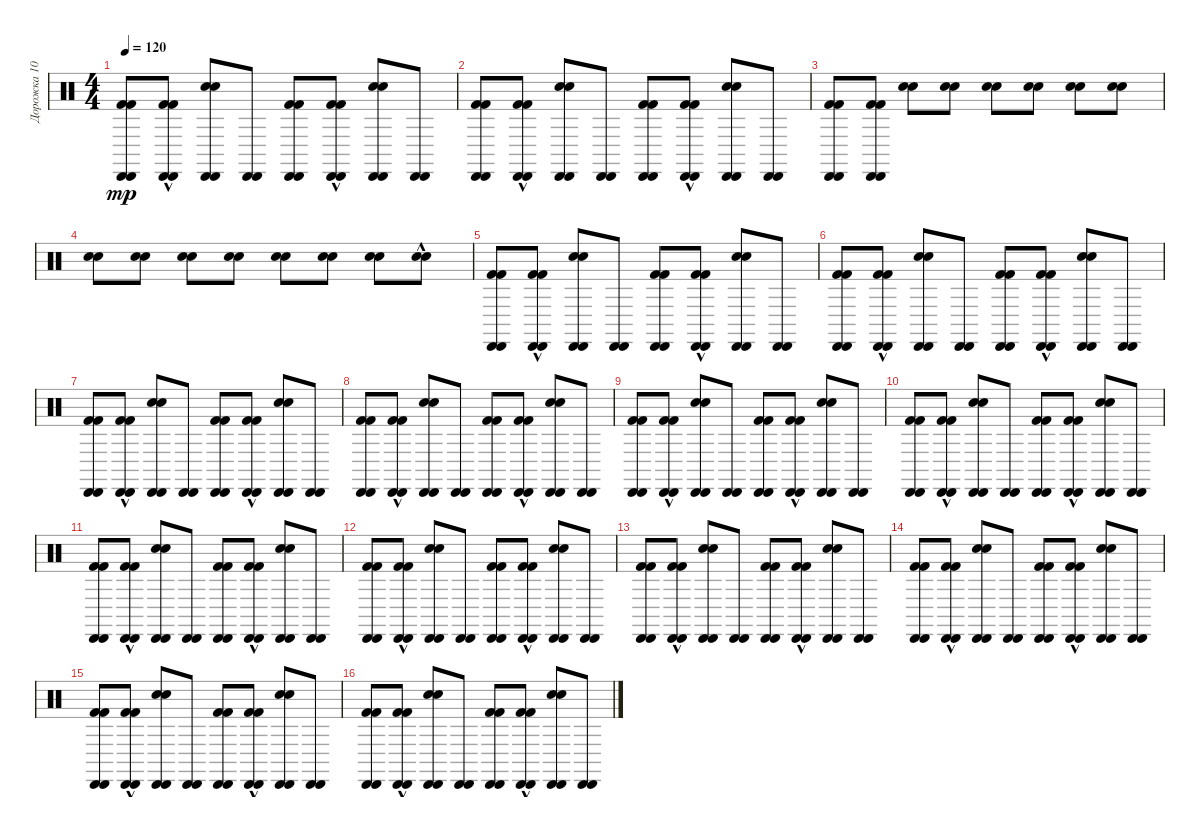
\track ("Дорожка 10" "Дорожка 10") {instrument percussion}
\staff {score}
\articulation defaults
\ts (4 4)
\tempo 120
\clef neutral
\ks c
("Kick (hit) 2" "Cabasa (hit)" "Kick (hit) 2" "Cabasa (hit)").8{dy mp} ("Kick (hit) 2"{hac} "Cabasa (hit)" "Kick (hit) 2"{hac} "Cabasa (hit)").8 ("Snare (hit) 2" "Cabasa (hit)" "Snare (hit) 2" "Cabasa (hit)").8 ("Cabasa (hit)" "Cabasa (hit)").8 ("Kick (hit) 2" "Cabasa (hit)" "Kick (hit) 2" "Cabasa (hit)").8 ("Kick (hit) 2"{hac} "Cabasa (hit)" "Kick (hit) 2"{hac} "Cabasa (hit)").8 ("Snare (hit) 2" "Cabasa (hit)" "Snare (hit) 2" "Cabasa (hit)").8 ("Cabasa (hit)" "Cabasa (hit)").8 |
("Kick (hit) 2" "Cabasa (hit)" "Kick (hit) 2" "Cabasa (hit)").8 ("Kick (hit) 2"{hac} "Cabasa (hit)" "Kick (hit) 2"{hac} "Cabasa (hit)").8 ("Snare (hit) 2" "Cabasa (hit)" "Snare (hit) 2" "Cabasa (hit)").8 ("Cabasa (hit)" "Cabasa (hit)").8 ("Kick (hit) 2" "Cabasa (hit)" "Kick (hit) 2" "Cabasa (hit)").8 ("Kick (hit) 2"{hac} "Cabasa (hit)" "Kick (hit) 2"{hac} "Cabasa (hit)").8 ("Snare (hit) 2" "Cabasa (hit)" "Snare (hit) 2" "Cabasa (hit)").8 ("Cabasa (hit)" "Cabasa (hit)").8 |
("Kick (hit) 2" "Cabasa (hit)" "Kick (hit) 2" "Cabasa (hit)").8 ("Kick (hit) 2" "Cabasa (hit)" "Kick (hit) 2" "Cabasa (hit)").8 ("Snare (hit) 2" "Snare (hit) 2").8 ("Snare (hit) 2" "Snare (hit) 2").8 ("Snare (hit) 2" "Snare (hit) 2").8 ("Snare (hit) 2" "Snare (hit) 2").8 ("Snare (hit) 2" "Snare (hit) 2").8 ("Snare (hit) 2" "Snare (hit) 2").8 |
("Snare (hit) 2" "Snare (hit) 2").8 ("Snare (hit) 2" "Snare (hit) 2").8 ("Snare (hit) 2" "Snare (hit) 2").8 ("Snare (hit) 2" "Snare (hit) 2").8 ("Snare (hit) 2" "Snare (hit) 2").8 ("Snare (hit) 2" "Snare (hit) 2").8 ("Snare (hit) 2" "Snare (hit) 2").8 ("Snare (hit) 2"{hac} "Snare (hit) 2"{hac}).8 |
("Kick (hit) 2" "Cabasa (hit)" "Kick (hit) 2" "Cabasa (hit)").8 ("Kick (hit) 2"{hac} "Cabasa (hit)" "Kick (hit) 2"{hac} "Cabasa (hit)").8 ("Snare (hit) 2" "Cabasa (hit)" "Snare (hit) 2" "Cabasa (hit)").8 ("Cabasa (hit)" "Cabasa (hit)").8 ("Kick (hit) 2" "Cabasa (hit)" "Kick (hit) 2" "Cabasa (hit)").8 ("Kick (hit) 2"{hac} "Cabasa (hit)" "Kick (hit) 2"{hac} "Cabasa (hit)").8 ("Snare (hit) 2" "Cabasa (hit)" "Snare (hit) 2" "Cabasa (hit)").8 ("Cabasa (hit)" "Cabasa (hit)").8 |
("Kick (hit) 2" "Cabasa (hit)" "Kick (hit) 2" "Cabasa (hit)").8 ("Kick (hit) 2"{hac} "Cabasa (hit)" "Kick (hit) 2"{hac} "Cabasa (hit)").8 ("Snare (hit) 2" "Cabasa (hit)" "Snare (hit) 2" "Cabasa (hit)").8 ("Cabasa (hit)" "Cabasa (hit)").8 ("Kick (hit) 2" "Cabasa (hit)" "Kick (hit) 2" "Cabasa (hit)").8 ("Kick (hit) 2"{hac} "Cabasa (hit)" "Kick (hit) 2"{hac} "Cabasa (hit)").8 ("Snare (hit) 2" "Cabasa (hit)" "Snare (hit) 2" "Cabasa (hit)").8 ("Cabasa (hit)" "Cabasa (hit)").8 |
("Kick (hit) 2" "Cabasa (hit)" "Kick (hit) 2" "Cabasa (hit)").8 ("Kick (hit) 2"{hac} "Cabasa (hit)" "Kick (hit) 2"{hac} "Cabasa (hit)").8 ("Snare (hit) 2" "Cabasa (hit)" "Snare (hit) 2" "Cabasa (hit)").8 ("Cabasa (hit)" "Cabasa (hit)").8 ("Kick (hit) 2" "Cabasa (hit)" "Kick (hit) 2" "Cabasa (hit)").8 ("Kick (hit) 2"{hac} "Cabasa (hit)" "Kick (hit) 2"{hac} "Cabasa (hit)").8 ("Snare (hit) 2" "Cabasa (hit)" "Snare (hit) 2" "Cabasa (hit)").8 ("Cabasa (hit)" "Cabasa (hit)").8 |
("Kick (hit) 2" "Cabasa (hit)" "Kick (hit) 2" "Cabasa (hit)").8 ("Kick (hit) 2"{hac} "Cabasa (hit)" "Kick (hit) 2"{hac} "Cabasa (hit)").8 ("Snare (hit) 2" "Cabasa (hit)" "Snare (hit) 2" "Cabasa (hit)").8 ("Cabasa (hit)" "Cabasa (hit)").8 ("Kick (hit) 2" "Cabasa (hit)" "Kick (hit) 2" "Cabasa (hit)").8 ("Kick (hit) 2"{hac} "Cabasa (hit)" "Kick (hit) 2"{hac} "Cabasa (hit)").8 ("Snare (hit) 2" "Cabasa (hit)" "Snare (hit) 2" "Cabasa (hit)").8 ("Cabasa (hit)" "Cabasa (hit)").8 |
("Kick (hit) 2" "Cabasa (hit)" "Kick (hit) 2" "Cabasa (hit)").8 ("Kick (hit) 2"{hac} "Cabasa (hit)" "Kick (hit) 2"{hac} "Cabasa (hit)").8 ("Snare (hit) 2" "Cabasa (hit)" "Snare (hit) 2" "Cabasa (hit)").8 ("Cabasa (hit)" "Cabasa (hit)").8 ("Kick (hit) 2" "Cabasa (hit)" "Kick (hit) 2" "Cabasa (hit)").8 ("Kick (hit) 2"{hac} "Cabasa (hit)" "Kick (hit) 2"{hac} "Cabasa (hit)").8 ("Snare (hit) 2" "Cabasa (hit)" "Snare (hit) 2" "Cabasa (hit)").8 ("Cabasa (hit)" "Cabasa (hit)").8 |
("Kick (hit) 2" "Cabasa (hit)" "Kick (hit) 2" "Cabasa (hit)").8 ("Kick (hit) 2"{hac} "Cabasa (hit)" "Kick (hit) 2"{hac} "Cabasa (hit)").8 ("Snare (hit) 2" "Cabasa (hit)" "Snare (hit) 2" "Cabasa (hit)").8 ("Cabasa (hit)" "Cabasa (hit)").8 ("Kick (hit) 2" "Cabasa (hit)" "Kick (hit) 2" "Cabasa (hit)").8 ("Kick (hit) 2"{hac} "Cabasa (hit)" "Kick (hit) 2"{hac} "Cabasa (hit)").8 ("Snare (hit) 2" "Cabasa (hit)" "Snare (hit) 2" "Cabasa (hit)").8 ("Cabasa (hit)" "Cabasa (hit)").8 |
("Kick (hit) 2" "Cabasa (hit)" "Kick (hit) 2" "Cabasa (hit)").8 ("Kick (hit) 2"{hac} "Cabasa (hit)" "Kick (hit) 2"{hac} "Cabasa (hit)").8 ("Snare (hit) 2" "Cabasa (hit)" "Snare (hit) 2" "Cabasa (hit)").8 ("Cabasa (hit)" "Cabasa (hit)").8 ("Kick (hit) 2" "Cabasa (hit)" "Kick (hit) 2" "Cabasa (hit)").8 ("Kick (hit) 2"{hac} "Cabasa (hit)" "Kick (hit) 2"{hac} "Cabasa (hit)").8 ("Snare (hit) 2" "Cabasa (hit)" "Snare (hit) 2" "Cabasa (hit)").8 ("Cabasa (hit)" "Cabasa (hit)").8 |
("Kick (hit) 2" "Cabasa (hit)" "Kick (hit) 2" "Cabasa (hit)").8 ("Kick (hit) 2"{hac} "Cabasa (hit)" "Kick (hit) 2"{hac} "Cabasa (hit)").8 ("Snare (hit) 2" "Cabasa (hit)" "Snare (hit) 2" "Cabasa (hit)").8 ("Cabasa (hit)" "Cabasa (hit)").8 ("Kick (hit) 2" "Cabasa (hit)" "Kick (hit) 2" "Cabasa (hit)").8 ("Kick (hit) 2"{hac} "Cabasa (hit)" "Kick (hit) 2"{hac} "Cabasa (hit)").8 ("Snare (hit) 2" "Cabasa (hit)" "Snare (hit) 2" "Cabasa (hit)").8 ("Cabasa (hit)" "Cabasa (hit)").8 |
("Kick (hit) 2" "Cabasa (hit)" "Kick (hit) 2" "Cabasa (hit)").8 ("Kick (hit) 2"{hac} "Cabasa (hit)" "Kick (hit) 2"{hac} "Cabasa (hit)").8 ("Snare (hit) 2" "Cabasa (hit)" "Snare (hit) 2" "Cabasa (hit)").8 ("Cabasa (hit)" "Cabasa (hit)").8 ("Kick (hit) 2" "Cabasa (hit)" "Kick (hit) 2" "Cabasa (hit)").8 ("Kick (hit) 2"{hac} "Cabasa (hit)" "Kick (hit) 2"{hac} "Cabasa (hit)").8 ("Snare (hit) 2" "Cabasa (hit)" "Snare (hit) 2" "Cabasa (hit)").8 ("Cabasa (hit)" "Cabasa (hit)").8 |
("Kick (hit) 2" "Cabasa (hit)" "Kick (hit) 2" "Cabasa (hit)").8 ("Kick (hit) 2"{hac} "Cabasa (hit)" "Kick (hit) 2"{hac} "Cabasa (hit)").8 ("Snare (hit) 2" "Cabasa (hit)" "Snare (hit) 2" "Cabasa (hit)").8 ("Cabasa (hit)" "Cabasa (hit)").8 ("Kick (hit) 2" "Cabasa (hit)" "Kick (hit) 2" "Cabasa (hit)").8 ("Kick (hit) 2"{hac} "Cabasa (hit)" "Kick (hit) 2"{hac} "Cabasa (hit)").8 ("Snare (hit) 2" "Cabasa (hit)" "Snare (hit) 2" "Cabasa (hit)").8 ("Cabasa (hit)" "Cabasa (hit)").8 |
("Kick (hit) 2" "Cabasa (hit)" "Kick (hit) 2" "Cabasa (hit)").8 ("Kick (hit) 2"{hac} "Cabasa (hit)" "Kick (hit) 2"{hac} "Cabasa (hit)").8 ("Snare (hit) 2" "Cabasa (hit)" "Snare (hit) 2" "Cabasa (hit)").8 ("Cabasa (hit)" "Cabasa (hit)").8 ("Kick (hit) 2" "Cabasa (hit)" "Kick (hit) 2" "Cabasa (hit)").8 ("Kick (hit) 2"{hac} "Cabasa (hit)" "Kick (hit) 2"{hac} "Cabasa (hit)").8 ("Snare (hit) 2" "Cabasa (hit)" "Snare (hit) 2" "Cabasa (hit)").8 ("Cabasa (hit)" "Cabasa (hit)").8 |
("Kick (hit) 2" "Cabasa (hit)" "Kick (hit) 2" "Cabasa (hit)").8 ("Kick (hit) 2"{hac} "Cabasa (hit)" "Kick (hit) 2"{hac} "Cabasa (hit)").8 ("Snare (hit) 2" "Cabasa (hit)" "Snare (hit) 2" "Cabasa (hit)").8 ("Cabasa (hit)" "Cabasa (hit)").8 ("Kick (hit) 2" "Cabasa (hit)" "Kick (hit) 2" "Cabasa (hit)").8 ("Kick (hit) 2"{hac} "Cabasa (hit)" "Kick (hit) 2"{hac} "Cabasa (hit)").8 ("Snare (hit) 2" "Cabasa (hit)" "Snare (hit) 2" "Cabasa (hit)").8 ("Cabasa (hit)" "Cabasa (hit)").8
